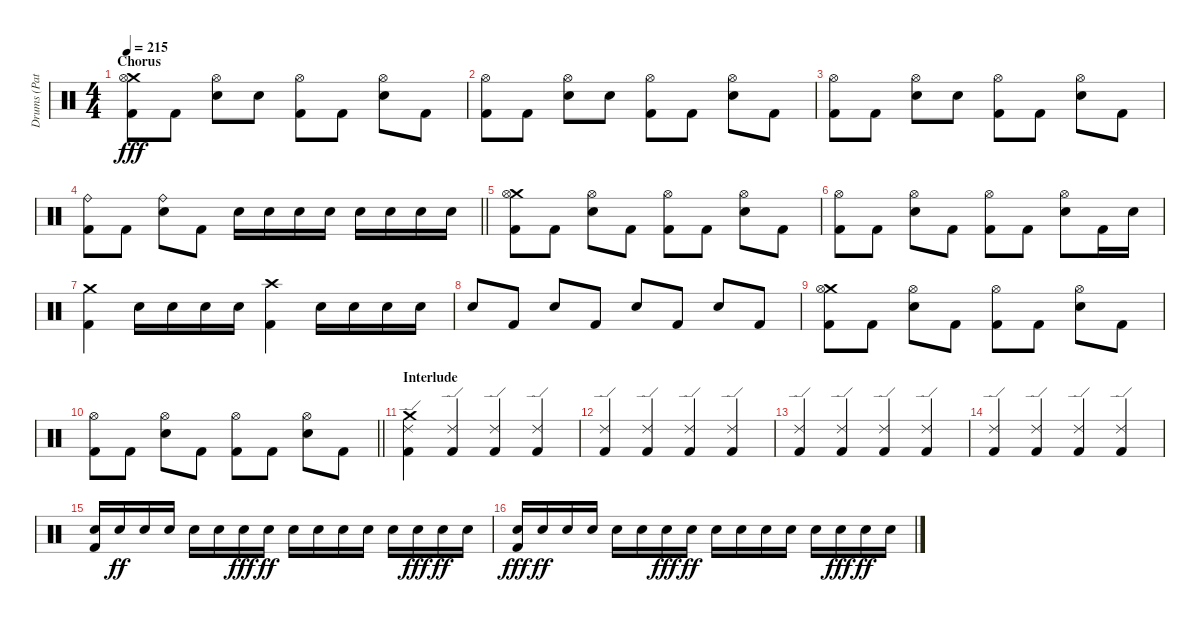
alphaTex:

\track ("Drums (Pat Thetic)" "Drums (Pat") {instrument percussion}
\staff {score}
\articulation defaults
\ts (4 4)
\section ("" "Chorus")
\tempo 215
\clef neutral
\ks c
("Crash medium (hit)" "Hi-Hat (open)" "Kick (hit) 2").8{dy fff} "Kick (hit) 2".8 ("Hi-Hat (open)" "Snare (hit) 2").8 "Snare (hit) 2".8 ("Hi-Hat (open)" "Kick (hit) 2").8 "Kick (hit) 2".8 ("Hi-Hat (open)" "Snare (hit) 2").8 "Kick (hit) 2".8 |
("Hi-Hat (open)" "Kick (hit) 2").8 "Kick (hit) 2".8 ("Hi-Hat (open)" "Snare (hit) 2").8 "Snare (hit) 2".8 ("Hi-Hat (open)" "Kick (hit) 2").8 "Kick (hit) 2".8 ("Hi-Hat (open)" "Snare (hit) 2").8 "Kick (hit) 2".8 |
("Hi-Hat (open)" "Kick (hit) 2").8 "Kick (hit) 2".8 ("Hi-Hat (open)" "Snare (hit) 2").8 "Snare (hit) 2".8 ("Hi-Hat (open)" "Kick (hit) 2").8 "Kick (hit) 2".8 ("Hi-Hat (open)" "Snare (hit) 2").8 "Kick (hit) 2".8 |
\barLineRight lightlight
("Ride (bell)" "Kick (hit) 2").8 "Kick (hit) 2".8 ("Ride (bell)" "Snare (hit) 2").8 "Kick (hit) 2".8 "Snare (hit) 2".16 "Snare (hit) 2".16 "Snare (hit) 2".16 "Snare (hit) 2".16 "Snare (hit) 2".16 "Snare (hit) 2".16 "Snare (hit) 2".16 "Snare (hit) 2".16 |
("Crash medium (hit)" "Hi-Hat (open)" "Kick (hit) 2").8 "Kick (hit) 2".8 ("Hi-Hat (open)" "Snare (hit) 2").8 "Kick (hit) 2".8 ("Hi-Hat (open)" "Kick (hit) 2").8 "Kick (hit) 2".8 ("Hi-Hat (open)" "Snare (hit) 2").8 "Kick (hit) 2".8 |
("Hi-Hat (open)" "Kick (hit) 2").8 "Kick (hit) 2".8 ("Hi-Hat (open)" "Snare (hit) 2").8 "Kick (hit) 2".8 ("Hi-Hat (open)" "Kick (hit) 2").8 "Kick (hit) 2".8 ("Hi-Hat (open)" "Snare (hit) 2").8 "Kick (hit) 2".16 "Snare (hit) 2".16 |
("Crash medium (hit)" "Kick (hit) 2").4 "Snare (hit) 2".16 "Snare (hit) 2".16 "Snare (hit) 2".16 "Snare (hit) 2".16 ("Crash high (hit)" "Kick (hit) 2").4 "Snare (hit) 2".16 "Snare (hit) 2".16 "Snare (hit) 2".16 "Snare (hit) 2".16 |
"Snare (hit) 2".8 "Kick (hit) 2".8 "Snare (hit) 2".8 "Kick (hit) 2".8 "Snare (hit) 2".8 "Kick (hit) 2".8 "Snare (hit) 2".8 "Kick (hit) 2".8 |
("Crash medium (hit)" "Hi-Hat (open)" "Kick (hit) 2").8 "Kick (hit) 2".8 ("Hi-Hat (open)" "Snare (hit) 2").8 "Kick (hit) 2".8 ("Hi-Hat (open)" "Kick (hit) 2").8 "Kick (hit) 2".8 ("Hi-Hat (open)" "Snare (hit) 2").8 "Kick (hit) 2".8 |
\barLineRight lightlight
("Hi-Hat (open)" "Kick (hit) 2").8 "Kick (hit) 2".8 ("Hi-Hat (open)" "Snare (hit) 2").8 "Kick (hit) 2".8 ("Hi-Hat (open)" "Kick (hit) 2").8 "Kick (hit) 2".8 ("Hi-Hat (open)" "Snare (hit) 2").8 "Kick (hit) 2".8 |
\section ("" "Interlude")
("Crash medium (hit)" "Ride (edge) 2" "Kick (hit) 2").4 ("Ride (edge) 2" "Kick (hit) 2").4 ("Ride (edge) 2" "Kick (hit) 2").4 ("Ride (edge) 2" "Kick (hit) 2").4 |
("Ride (edge) 2" "Kick (hit) 2").4 ("Ride (edge) 2" "Kick (hit) 2").4 ("Ride (edge) 2" "Kick (hit) 2").4 ("Ride (edge) 2" "Kick (hit) 2").4 |
("Ride (edge) 2" "Kick (hit) 2").4 ("Ride (edge) 2" "Kick (hit) 2").4 ("Ride (edge) 2" "Kick (hit) 2").4 ("Ride (edge) 2" "Kick (hit) 2").4 |
("Ride (edge) 2" "Kick (hit) 2").4 ("Ride (edge) 2" "Kick (hit) 2").4 ("Ride (edge) 2" "Kick (hit) 2").4 ("Ride (edge) 2" "Kick (hit) 2").4 |
("Snare (hit) 2" "Kick (hit) 2").16 "Electric Snare (hit)".16{dy ff} "Electric Snare (hit)".16 "Electric Snare (hit)".16 "Electric Snare (hit)".16 "Electric Snare (hit)".16 "Snare (hit) 2".16{dy fff} "Electric Snare (hit)".16{dy ff} "Electric Snare (hit)".16 "Electric Snare (hit)".16 "Electric Snare (hit)".16 "Electric Snare (hit)".16 "Electric Snare (hit)".16 "Snare (hit) 2".16{dy fff} "Electric Snare (hit)".16{dy ff} "Electric Snare (hit)".16 |
("Snare (hit) 2" "Kick (hit) 2").16{dy fff} "Electric Snare (hit)".16{dy ff} "Electric Snare (hit)".16 "Electric Snare (hit)".16 "Electric Snare (hit)".16 "Electric Snare (hit)".16 "Snare (hit) 2".16{dy fff} "Electric Snare (hit)".16{dy ff} "Electric Snare (hit)".16 "Electric Snare (hit)".16 "Electric Snare (hit)".16 "Electric Snare (hit)".16 "Electric Snare (hit)".16 "Snare (hit) 2".16{dy fff} "Electric Snare (hit)".16{dy ff} "Electric Snare (hit)".16
